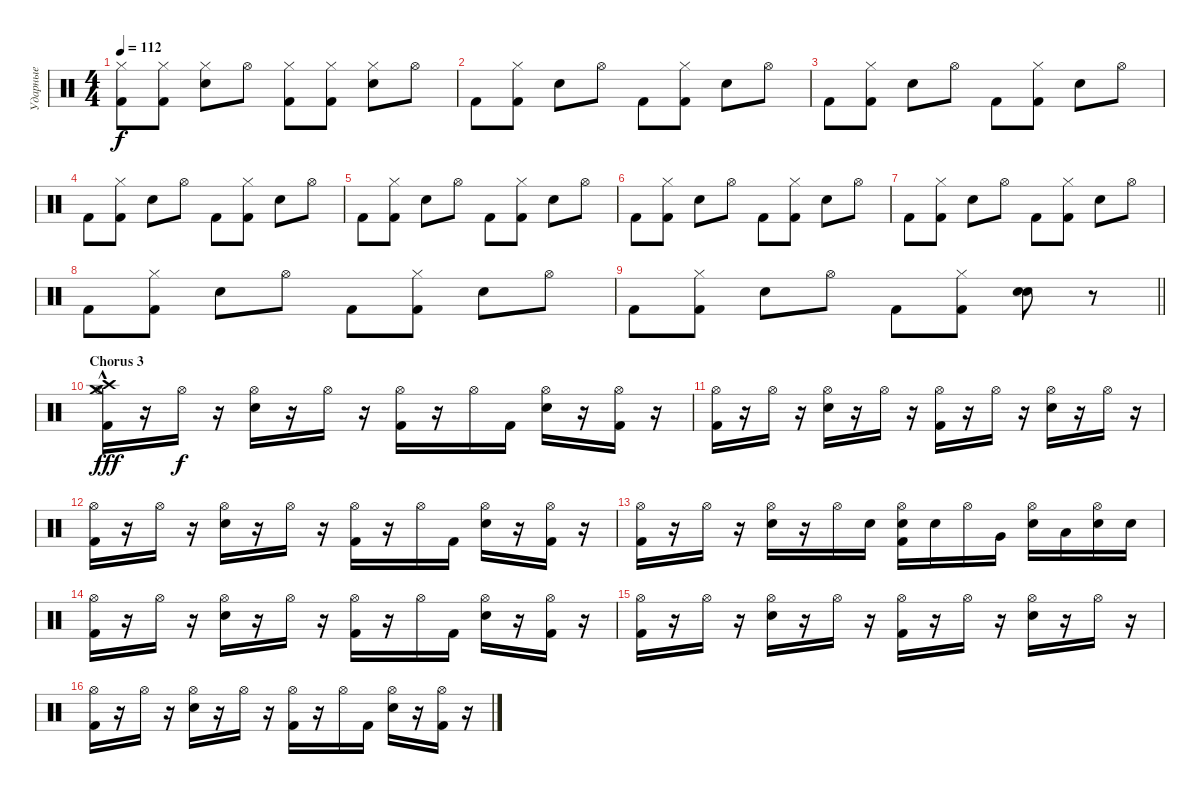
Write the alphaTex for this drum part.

\track ("Ударные" "Ударные") {instrument percussion}
\staff {score}
\articulation defaults
\ts (4 4)
\tempo 112
\clef neutral
\ks c
("Hi-Hat (closed)" "Kick (hit) 2").8{dy f} ("Hi-Hat (closed)" "Kick (hit) 2").8 ("Hi-Hat (closed)" "Snare (hit) 2").8 "Hi-Hat (open)".8 ("Hi-Hat (closed)" "Kick (hit) 2").8 ("Hi-Hat (closed)" "Kick (hit) 2").8 ("Hi-Hat (closed)" "Snare (hit) 2").8 "Hi-Hat (open)".8 |
"Kick (hit) 2".8 ("Hi-Hat (closed)" "Kick (hit) 2").8 "Snare (hit) 2".8 "Hi-Hat (open)".8 "Kick (hit) 2".8 ("Hi-Hat (closed)" "Kick (hit) 2").8 "Snare (hit) 2".8 "Hi-Hat (open)".8 |
"Kick (hit) 2".8 ("Hi-Hat (closed)" "Kick (hit) 2").8 "Snare (hit) 2".8 "Hi-Hat (open)".8 "Kick (hit) 2".8 ("Hi-Hat (closed)" "Kick (hit) 2").8 "Snare (hit) 2".8 "Hi-Hat (open)".8 |
"Kick (hit) 2".8 ("Hi-Hat (closed)" "Kick (hit) 2").8 "Snare (hit) 2".8 "Hi-Hat (open)".8 "Kick (hit) 2".8 ("Hi-Hat (closed)" "Kick (hit) 2").8 "Snare (hit) 2".8 "Hi-Hat (open)".8 |
"Kick (hit) 2".8 ("Hi-Hat (closed)" "Kick (hit) 2").8 "Snare (hit) 2".8 "Hi-Hat (open)".8 "Kick (hit) 2".8 ("Hi-Hat (closed)" "Kick (hit) 2").8 "Snare (hit) 2".8 "Hi-Hat (open)".8 |
"Kick (hit) 2".8 ("Hi-Hat (closed)" "Kick (hit) 2").8 "Snare (hit) 2".8 "Hi-Hat (open)".8 "Kick (hit) 2".8 ("Hi-Hat (closed)" "Kick (hit) 2").8 "Snare (hit) 2".8 "Hi-Hat (open)".8 |
"Kick (hit) 2".8 ("Hi-Hat (closed)" "Kick (hit) 2").8 "Snare (hit) 2".8 "Hi-Hat (open)".8 "Kick (hit) 2".8 ("Hi-Hat (closed)" "Kick (hit) 2").8 "Snare (hit) 2".8 "Hi-Hat (open)".8 |
"Kick (hit) 2".8 ("Hi-Hat (closed)" "Kick (hit) 2").8 "Snare (hit) 2".8 "Hi-Hat (open)".8 "Kick (hit) 2".8 ("Hi-Hat (closed)" "Kick (hit) 2").8 "Snare (hit) 2".8 "Hi-Hat (open)".8 |
\barLineRight lightlight "Kick (hit) 2".8
("Hi-Hat (closed)" "Kick (hit) 2").8 "Snare (hit) 2".8 "Hi-Hat (open)".8 "Kick (hit) 2".8 ("Hi-Hat (closed)" "Kick (hit) 2").8 ("Snare (hit) 2" "Snare (hit) 2").8 r.8 |
\section ("" "Chorus 3")
("Crash high (hit)"{hac} "Crash medium (hit)"{hac} "Hi-Hat (open)" "Kick (hit) 2").16{dy fff} r.16 "Hi-Hat (open)".16{dy f} r.16 ("Hi-Hat (open)" "Snare (hit) 2").16 r.16 "Hi-Hat (open)".16 r.16 ("Hi-Hat (open)" "Kick (hit) 2").16 r.16 "Hi-Hat (open)".16 "Kick (hit) 2".16 ("Hi-Hat (open)" "Snare (hit) 2").16 r.16 ("Hi-Hat (open)" "Kick (hit) 2").16 r.16 |
("Hi-Hat (open)" "Kick (hit) 2").16 r.16 "Hi-Hat (open)".16 r.16 ("Hi-Hat (open)" "Snare (hit) 2").16 r.16 "Hi-Hat (open)".16 r.16 ("Hi-Hat (open)" "Kick (hit) 2").16 r.16 "Hi-Hat (open)".16 r.16 ("Hi-Hat (open)" "Snare (hit) 2").16 r.16 "Hi-Hat (open)".16 r.16 |
("Hi-Hat (open)" "Kick (hit) 2").16 r.16 "Hi-Hat (open)".16 r.16 ("Hi-Hat (open)" "Snare (hit) 2").16 r.16 "Hi-Hat (open)".16 r.16 ("Hi-Hat (open)" "Kick (hit) 2").16 r.16 "Hi-Hat (open)".16 "Kick (hit) 2".16 ("Hi-Hat (open)" "Snare (hit) 2").16 r.16 ("Hi-Hat (open)" "Kick (hit) 2").16 r.16 |
("Hi-Hat (open)" "Kick (hit) 2").16 r.16 "Hi-Hat (open)".16 r.16 ("Hi-Hat (open)" "Snare (hit) 2").16 r.16 "Hi-Hat (open)".16 "Snare (hit) 2".16 ("Hi-Hat (open)" "Electric Snare (hit)" "Kick (hit) 2").16 "Snare (hit) 2".16 "Hi-Hat (open)".16 "Very Low Tom (hit)".16 ("Hi-Hat (open)" "Snare (hit) 2").16 "Low Floor Tom (hit)".16 ("Hi-Hat (open)" "Electric Snare (hit)").16 "Snare (hit) 2".16 |
("Hi-Hat (open)" "Kick (hit) 2").16 r.16 "Hi-Hat (open)".16 r.16 ("Hi-Hat (open)" "Snare (hit) 2").16 r.16 "Hi-Hat (open)".16 r.16 ("Hi-Hat (open)" "Kick (hit) 2").16 r.16 "Hi-Hat (open)".16 "Kick (hit) 2".16 ("Hi-Hat (open)" "Snare (hit) 2").16 r.16 ("Hi-Hat (open)" "Kick (hit) 2").16 r.16 |
("Hi-Hat (open)" "Kick (hit) 2").16 r.16 "Hi-Hat (open)".16 r.16 ("Hi-Hat (open)" "Snare (hit) 2").16 r.16 "Hi-Hat (open)".16 r.16 ("Hi-Hat (open)" "Kick (hit) 2").16 r.16 "Hi-Hat (open)".16 r.16 ("Hi-Hat (open)" "Snare (hit) 2").16 r.16 "Hi-Hat (open)".16 r.16 |
("Hi-Hat (open)" "Kick (hit) 2").16 r.16 "Hi-Hat (open)".16 r.16 ("Hi-Hat (open)" "Snare (hit) 2").16 r.16 "Hi-Hat (open)".16 r.16 ("Hi-Hat (open)" "Kick (hit) 2").16 r.16 "Hi-Hat (open)".16 "Kick (hit) 2".16 ("Hi-Hat (open)" "Snare (hit) 2").16 r.16 ("Hi-Hat (open)" "Kick (hit) 2").16 r.16
